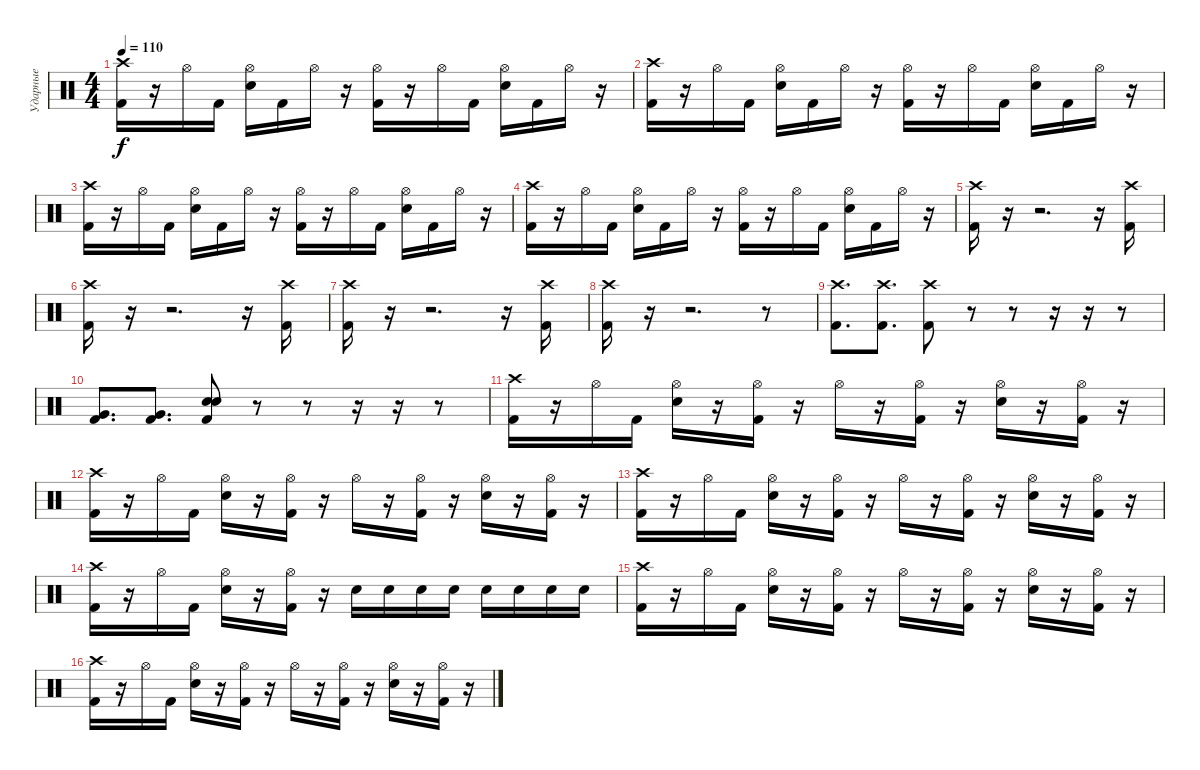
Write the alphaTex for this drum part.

\track ("Ударные" "Ударные") {instrument percussion}
\staff {score}
\articulation defaults
\ts (4 4)
\tempo 110
\clef neutral
\ks c
("Crash high (hit)" "Kick (hit) 2").16{dy f} r.16 "Hi-Hat (open)".16 "Kick (hit) 2".16 ("Hi-Hat (open)" "Snare (hit) 2").16 "Kick (hit) 2".16 "Hi-Hat (open)".16 r.16 ("Hi-Hat (open)" "Kick (hit) 2").16 r.16 "Hi-Hat (open)".16 "Kick (hit) 2".16 ("Hi-Hat (open)" "Snare (hit) 2").16 "Kick (hit) 2".16 "Hi-Hat (open)".16 r.16 |
("Crash high (hit)" "Kick (hit) 2").16 r.16 "Hi-Hat (open)".16 "Kick (hit) 2".16 ("Hi-Hat (open)" "Snare (hit) 2").16 "Kick (hit) 2".16 "Hi-Hat (open)".16 r.16 ("Hi-Hat (open)" "Kick (hit) 2").16 r.16 "Hi-Hat (open)".16 "Kick (hit) 2".16 ("Hi-Hat (open)" "Snare (hit) 2").16 "Kick (hit) 2".16 "Hi-Hat (open)".16 r.16 |
("Crash high (hit)" "Kick (hit) 2").16 r.16 "Hi-Hat (open)".16 "Kick (hit) 2".16 ("Hi-Hat (open)" "Snare (hit) 2").16 "Kick (hit) 2".16 "Hi-Hat (open)".16 r.16 ("Hi-Hat (open)" "Kick (hit) 2").16 r.16 "Hi-Hat (open)".16 "Kick (hit) 2".16 ("Hi-Hat (open)" "Snare (hit) 2").16 "Kick (hit) 2".16 "Hi-Hat (open)".16 r.16 |
("Crash high (hit)" "Kick (hit) 2").16 r.16 "Hi-Hat (open)".16 "Kick (hit) 2".16 ("Hi-Hat (open)" "Snare (hit) 2").16 "Kick (hit) 2".16 "Hi-Hat (open)".16 r.16 ("Hi-Hat (open)" "Kick (hit) 2").16 r.16 "Hi-Hat (open)".16 "Kick (hit) 2".16 ("Hi-Hat (open)" "Snare (hit) 2").16 "Kick (hit) 2".16 "Hi-Hat (open)".16 r.16 |
("Crash high (hit)" "Kick (hit) 2").16 r.16 r.2{d} r.16 ("Crash high (hit)" "Kick (hit) 2").16 |
("Crash high (hit)" "Kick (hit) 2").16 r.16 r.2{d} r.16 ("Crash high (hit)" "Kick (hit) 2").16 |
("Crash high (hit)" "Kick (hit) 2").16 r.16 r.2{d} r.16 ("Crash high (hit)" "Kick (hit) 2").16 |
("Crash high (hit)" "Kick (hit) 2").16 r.16 r.2{d} r.8 |
("Crash high (hit)" "Kick (hit) 2").8{d} ("Crash high (hit)" "Kick (hit) 2").8{d} ("Crash high (hit)" "Kick (hit) 2").8 r.8 r.8 r.16 r.16 r.8 |
("Very Low Tom (hit)" "Kick (hit) 2").8{d} ("Very Low Tom (hit)" "Kick (hit) 2").8{d} ("Snare (hit) 2" "Snare (hit) 2" "Kick (hit) 2").8 r.8 r.8 r.16 r.16 r.8 |
("Crash high (hit)" "Kick (hit) 2").16 r.16 "Hi-Hat (open)".16 "Kick (hit) 2".16 ("Hi-Hat (open)" "Snare (hit) 2").16 r.16 ("Hi-Hat (open)" "Kick (hit) 2").16 r.16 "Hi-Hat (open)".16 r.16 ("Hi-Hat (open)" "Kick (hit) 2").16 r.16 ("Hi-Hat (open)" "Snare (hit) 2").16 r.16 ("Hi-Hat (open)" "Kick (hit) 2").16 r.16 |
("Crash high (hit)" "Kick (hit) 2").16 r.16 "Hi-Hat (open)".16 "Kick (hit) 2".16 ("Hi-Hat (open)" "Snare (hit) 2").16 r.16 ("Hi-Hat (open)" "Kick (hit) 2").16 r.16 "Hi-Hat (open)".16 r.16 ("Hi-Hat (open)" "Kick (hit) 2").16 r.16 ("Hi-Hat (open)" "Snare (hit) 2").16 r.16 ("Hi-Hat (open)" "Kick (hit) 2").16 r.16 |
("Crash high (hit)" "Kick (hit) 2").16 r.16 "Hi-Hat (open)".16 "Kick (hit) 2".16 ("Hi-Hat (open)" "Snare (hit) 2").16 r.16 ("Hi-Hat (open)" "Kick (hit) 2").16 r.16 "Hi-Hat (open)".16 r.16 ("Hi-Hat (open)" "Kick (hit) 2").16 r.16 ("Hi-Hat (open)" "Snare (hit) 2").16 r.16 ("Hi-Hat (open)" "Kick (hit) 2").16 r.16 |
("Crash high (hit)" "Kick (hit) 2").16 r.16 "Hi-Hat (open)".16 "Kick (hit) 2".16 ("Hi-Hat (open)" "Snare (hit) 2").16 r.16 ("Hi-Hat (open)" "Kick (hit) 2").16 r.16 "Snare (hit) 2".16 "Snare (hit) 2".16 "Snare (hit) 2".16 "Snare (hit) 2".16 "Snare (hit) 2".16 "Snare (hit) 2".16 "Snare (hit) 2".16 "Snare (hit) 2".16 |
("Crash high (hit)" "Kick (hit) 2").16 r.16 "Hi-Hat (open)".16 "Kick (hit) 2".16 ("Hi-Hat (open)" "Snare (hit) 2").16 r.16 ("Hi-Hat (open)" "Kick (hit) 2").16 r.16 "Hi-Hat (open)".16 r.16 ("Hi-Hat (open)" "Kick (hit) 2").16 r.16 ("Hi-Hat (open)" "Snare (hit) 2").16 r.16 ("Hi-Hat (open)" "Kick (hit) 2").16 r.16 |
("Crash high (hit)" "Kick (hit) 2").16 r.16 "Hi-Hat (open)".16 "Kick (hit) 2".16 ("Hi-Hat (open)" "Snare (hit) 2").16 r.16 ("Hi-Hat (open)" "Kick (hit) 2").16 r.16 "Hi-Hat (open)".16 r.16 ("Hi-Hat (open)" "Kick (hit) 2").16 r.16 ("Hi-Hat (open)" "Snare (hit) 2").16 r.16 ("Hi-Hat (open)" "Kick (hit) 2").16 r.16
